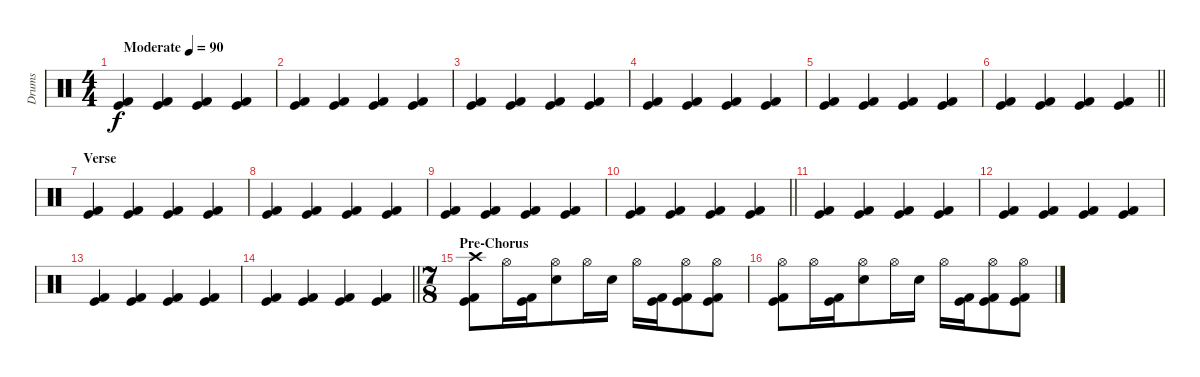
\track ("Drums" "Drums") {instrument percussion}
\staff {score}
\articulation defaults
\ts (4 4)
\tempo (90 "Moderate")
\clef neutral
\ks c
("Kick (hit)" "Kick (hit) 2").4{dy f} ("Kick (hit)" "Kick (hit) 2").4 ("Kick (hit)" "Kick (hit) 2").4 ("Kick (hit)" "Kick (hit) 2").4 |
("Kick (hit)" "Kick (hit) 2").4 ("Kick (hit)" "Kick (hit) 2").4 ("Kick (hit)" "Kick (hit) 2").4 ("Kick (hit)" "Kick (hit) 2").4 |
("Kick (hit)" "Kick (hit) 2").4 ("Kick (hit)" "Kick (hit) 2").4 ("Kick (hit)" "Kick (hit) 2").4 ("Kick (hit)" "Kick (hit) 2").4 |
("Kick (hit)" "Kick (hit) 2").4 ("Kick (hit)" "Kick (hit) 2").4 ("Kick (hit)" "Kick (hit) 2").4 ("Kick (hit)" "Kick (hit) 2").4 |
("Kick (hit)" "Kick (hit) 2").4 ("Kick (hit)" "Kick (hit) 2").4 ("Kick (hit)" "Kick (hit) 2").4 ("Kick (hit)" "Kick (hit) 2").4 |
\barLineRight lightlight
("Kick (hit)" "Kick (hit) 2").4 ("Kick (hit)" "Kick (hit) 2").4 ("Kick (hit)" "Kick (hit) 2").4 ("Kick (hit)" "Kick (hit) 2").4 |
\section ("" "Verse")
("Kick (hit)" "Kick (hit) 2").4 ("Kick (hit)" "Kick (hit) 2").4 ("Kick (hit)" "Kick (hit) 2").4 ("Kick (hit)" "Kick (hit) 2").4 |
("Kick (hit)" "Kick (hit) 2").4 ("Kick (hit)" "Kick (hit) 2").4 ("Kick (hit)" "Kick (hit) 2").4 ("Kick (hit)" "Kick (hit) 2").4 |
("Kick (hit)" "Kick (hit) 2").4 ("Kick (hit)" "Kick (hit) 2").4 ("Kick (hit)" "Kick (hit) 2").4 ("Kick (hit)" "Kick (hit) 2").4 |
\barLineRight lightlight
("Kick (hit)" "Kick (hit) 2").4 ("Kick (hit)" "Kick (hit) 2").4 ("Kick (hit)" "Kick (hit) 2").4 ("Kick (hit)" "Kick (hit) 2").4 |
("Kick (hit)" "Kick (hit) 2").4 ("Kick (hit)" "Kick (hit) 2").4 ("Kick (hit)" "Kick (hit) 2").4 ("Kick (hit)" "Kick (hit) 2").4 |
("Kick (hit)" "Kick (hit) 2").4 ("Kick (hit)" "Kick (hit) 2").4 ("Kick (hit)" "Kick (hit) 2").4 ("Kick (hit)" "Kick (hit) 2").4 |
("Kick (hit)" "Kick (hit) 2").4 ("Kick (hit)" "Kick (hit) 2").4 ("Kick (hit)" "Kick (hit) 2").4 ("Kick (hit)" "Kick (hit) 2").4 |
\barLineRight lightlight
("Kick (hit)" "Kick (hit) 2").4 ("Kick (hit)" "Kick (hit) 2").4 ("Kick (hit)" "Kick (hit) 2").4 ("Kick (hit)" "Kick (hit) 2").4 |
\ts (7 8)
\section ("" "Pre-Chorus")
("Crash high (hit)" "Kick (hit)" "Kick (hit) 2").8 "Hi-Hat (open)".16 ("Kick (hit)" "Kick (hit) 2").16 ("Hi-Hat (open)" "Snare (hit) 2").8 "Hi-Hat (open)".16 "Snare (hit) 2".16 "Hi-Hat (open)".16 ("Kick (hit)" "Kick (hit) 2").16 ("Hi-Hat (open)" "Kick (hit)" "Kick (hit) 2").8 ("Hi-Hat (open)" "Kick (hit)" "Kick (hit) 2").8 |
("Hi-Hat (open)" "Kick (hit)" "Kick (hit) 2").8 "Hi-Hat (open)".16 ("Kick (hit)" "Kick (hit) 2").16 ("Hi-Hat (open)" "Snare (hit) 2").8 "Hi-Hat (open)".16 "Snare (hit) 2".16 "Hi-Hat (open)".16 ("Kick (hit)" "Kick (hit) 2").16 ("Hi-Hat (open)" "Kick (hit)" "Kick (hit) 2").8 ("Hi-Hat (open)" "Kick (hit)" "Kick (hit) 2").8
